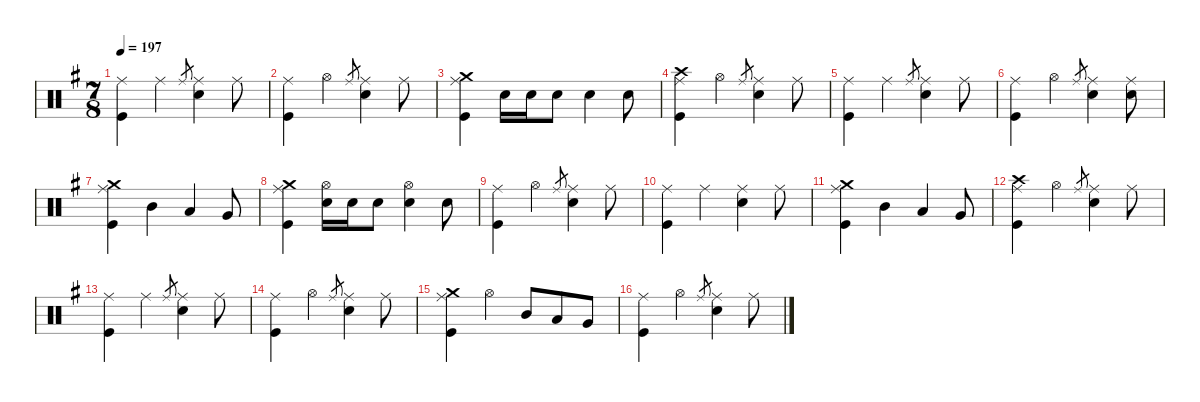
\defaultSystemsLayout 4
\hideDynamics
\bracketExtendMode nobrackets
\singleTrackTrackNamePolicy hidden
\multiTrackTrackNamePolicy hidden
\firstSystemTrackNameMode fullname
\firstSystemTrackNameOrientation horizontal
\otherSystemsTrackNameOrientation horizontal
\track ("Drums" "drm.") {defaultSystemsLayout 4 instrument percussion}
\staff {score}
\articulation defaults
\ts (7 8)
\tempo 197
\clef neutral
\ks eminor
("Ride (middle)"{acc forcenatural} "Kick (hit)"{acc forcenatural}).4{dy f beam Down} "Ride (middle)"{acc forcenatural}.4{beam Down} "Ride (middle)"{acc forcenatural}.8{gr dy mf beam Up} ("Ride (middle)"{acc forcenatural} "Snare (hit) 2"{acc forcenatural}).4{dy f beam Down} "Ride (middle)"{acc forcenatural}.8{beam Down} |
("Ride (middle)"{acc forcenatural} "Kick (hit)"{acc forcenatural}).4{beam Down} "Hi-Hat (open)"{acc forcenatural}.4{beam Down} "Ride (middle)"{acc forcenatural}.8{gr dy mf beam Up} ("Ride (middle)"{acc forcenatural} "Snare (hit) 2"{acc forcenatural}).4{dy f beam Down} "Ride (middle)"{acc forcenatural}.8{beam Down} |
("Crash medium (hit)"{acc forcenatural} "Ride (middle)"{acc forcenatural} "Kick (hit)"{acc forcenatural}).4{dy mp beam Down} "Snare (hit) 2"{acc forcenatural}.16{beam Down} "Snare (hit) 2"{acc forcenatural}.16{beam Down} "Snare (hit) 2"{acc forcenatural}.8{dy mf beam Down} "Snare (hit) 2"{acc forcenatural}.4{dy f beam Down} "Snare (hit) 2"{acc forcenatural}.8{beam Down} |
("Crash high (hit)"{acc forcenatural} "Ride (middle)"{acc forcenatural} "Kick (hit)"{acc forcenatural}).4{dy mf beam Down} "Hi-Hat (open)"{acc forcenatural}.4{dy f beam Down} "Ride (middle)"{acc forcenatural}.8{gr dy mf beam Up} ("Ride (middle)"{acc forcenatural} "Snare (hit) 2"{acc forcenatural}).4{dy f beam Down} "Ride (middle)"{acc forcenatural}.8{beam Down} |
("Ride (middle)"{acc forcenatural} "Kick (hit)"{acc forcenatural}).4{beam Down} "Ride (middle)"{acc forcenatural}.4{beam Down} "Ride (middle)"{acc forcenatural}.8{gr dy mf beam Up} ("Ride (middle)"{acc forcenatural} "Snare (hit) 2"{acc forcenatural}).4{dy f beam Down} "Ride (middle)"{acc forcenatural}.8{beam Down} |
("Ride (middle)"{acc forcenatural} "Kick (hit)"{acc forcenatural}).4{beam Down} "Hi-Hat (open)"{acc forcenatural}.4{beam Down} "Ride (middle)"{acc forcenatural}.8{gr dy mf beam Up} ("Ride (middle)"{acc forcenatural} "Snare (hit) 2"{acc forcenatural}).4{dy f beam Down} ("Ride (middle)"{acc forcenatural} "Snare (hit) 2"{acc forcenatural}).8{beam Down} |
("Crash medium (hit)"{acc forcenatural} "Ride (middle)"{acc forcenatural} "Kick (hit)"{acc forcenatural}).4{dy mp beam Down} "Mid Tom (hit)"{acc forcenatural}.4{dy f beam Down} "Low Tom (hit)"{acc forcenatural}.4{beam Up} "Very Low Tom (hit)"{acc forcenatural}.8{beam Up} |
("Crash medium (hit)"{acc forcenatural} "Ride (middle)"{acc forcenatural} "Kick (hit)"{acc forcenatural}).4{dy mp beam Down} ("Hi-Hat (open)"{acc forcenatural} "Snare (hit) 2"{acc forcenatural}).16{dy f beam Down} "Snare (hit) 2"{acc forcenatural}.16{dy mp beam Down} "Snare (hit) 2"{acc forcenatural}.8{dy mf beam Down} ("Hi-Hat (open)"{acc forcenatural} "Snare (hit) 2"{acc forcenatural}).4{dy f beam Down} "Snare (hit) 2"{acc forcenatural}.8{beam Down} |
("Ride (middle)"{acc forcenatural} "Kick (hit)"{acc forcenatural}).4{beam Down} "Hi-Hat (open)"{acc forcenatural}.4{beam Down} "Ride (middle)"{acc forcenatural}.8{gr dy mf beam Up} ("Ride (middle)"{acc forcenatural} "Snare (hit) 2"{acc forcenatural}).4{dy f beam Down} "Ride (middle)"{acc forcenatural}.8{beam Down} |
("Ride (middle)"{acc forcenatural} "Kick (hit)"{acc forcenatural}).4{beam Down} "Ride (middle)"{acc forcenatural}.4{beam Down} ("Ride (middle)"{acc forcenatural} "Snare (hit) 2"{acc forcenatural}).4{beam Down} "Ride (middle)"{acc forcenatural}.8{beam Down} |
("Crash medium (hit)"{acc forcenatural} "Ride (middle)"{acc forcenatural} "Kick (hit)"{acc forcenatural}).4{dy mp beam Down} "Mid Tom (hit)"{acc forcenatural}.4{dy f beam Down} "Low Tom (hit)"{acc forcenatural}.4{beam Up} "Very Low Tom (hit)"{acc forcenatural}.8{beam Up} |
("Crash high (hit)"{acc forcenatural} "Ride (middle)"{acc forcenatural} "Kick (hit)"{acc forcenatural}).4{dy mf beam Down} "Hi-Hat (open)"{acc forcenatural}.4{dy f beam Down} "Ride (middle)"{acc forcenatural}.8{gr dy mf beam Up} ("Ride (middle)"{acc forcenatural} "Snare (hit) 2"{acc forcenatural}).4{dy f beam Down} "Ride (middle)"{acc forcenatural}.8{beam Down} |
("Ride (middle)"{acc forcenatural} "Kick (hit)"{acc forcenatural}).4{beam Down} "Ride (middle)"{acc forcenatural}.4{beam Down} "Ride (middle)"{acc forcenatural}.8{gr dy mf beam Up} ("Ride (middle)"{acc forcenatural} "Snare (hit) 2"{acc forcenatural}).4{dy f beam Down} "Ride (middle)"{acc forcenatural}.8{beam Down} |
("Ride (middle)"{acc forcenatural} "Kick (hit)"{acc forcenatural}).4{beam Down} "Hi-Hat (open)"{acc forcenatural}.4{beam Down} "Ride (middle)"{acc forcenatural}.8{gr dy mf beam Up} ("Ride (middle)"{acc forcenatural} "Snare (hit) 2"{acc forcenatural}).4{dy f beam Down} "Ride (middle)"{acc forcenatural}.8{beam Down} |
("Crash medium (hit)"{acc forcenatural} "Ride (middle)"{acc forcenatural} "Kick (hit)"{acc forcenatural}).4{dy mp beam Down} "Hi-Hat (open)"{acc forcenatural}.4{dy f beam Down} "Mid Tom (hit)"{acc forcenatural}.8{beam Up} "Low Tom (hit)"{acc forcenatural}.8{beam Up} "Very Low Tom (hit)"{acc forcenatural}.8{beam Up} |
("Ride (middle)"{acc forcenatural} "Kick (hit)"{acc forcenatural}).4{beam Down} "Hi-Hat (open)"{acc forcenatural}.4{beam Down} "Ride (middle)"{acc forcenatural}.8{gr dy mf beam Up} ("Ride (middle)"{acc forcenatural} "Snare (hit) 2"{acc forcenatural}).4{dy f beam Down} "Ride (middle)"{acc forcenatural}.8{beam Down}
